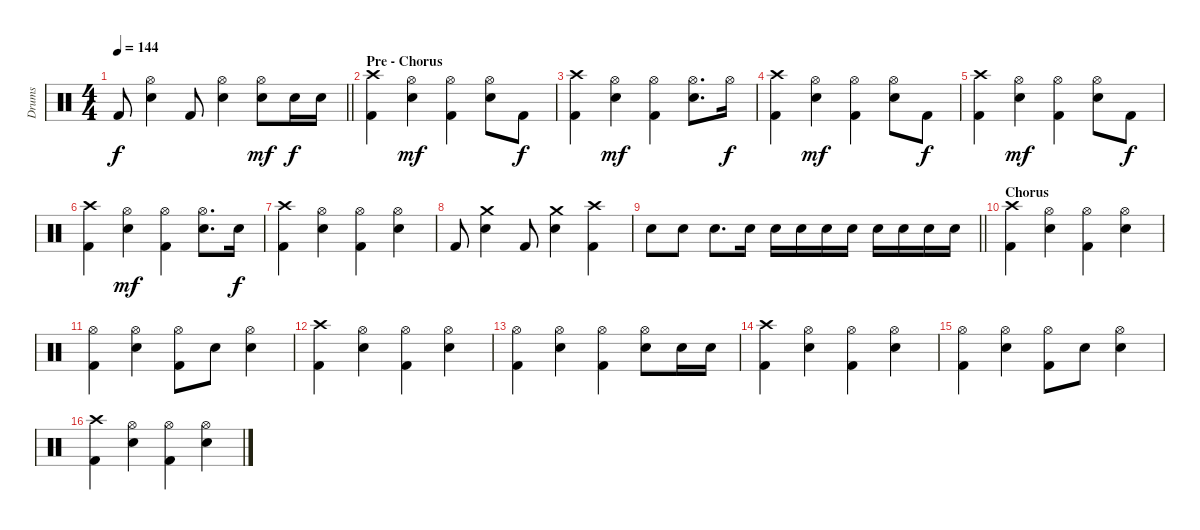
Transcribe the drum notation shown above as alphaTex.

\track ("Drums" "Drums") {instrument percussion}
\staff {score}
\articulation defaults
\ts (4 4)
\tempo 144
\clef neutral
\barLineRight lightlight
\ks c "Kick (hit) 2".8{dy f}
("Hi-Hat (open)" "Snare (hit) 2").4 "Kick (hit) 2".8 ("Hi-Hat (open)" "Snare (hit) 2").4 ("Hi-Hat (open)" "Snare (hit) 2").8{dy mf} "Snare (hit) 2".16{dy f} "Snare (hit) 2".16 |
\section ("" "Pre - Chorus")
("Kick (hit) 2" "Crash high (hit)").4 ("Hi-Hat (open)" "Snare (hit) 2").4{dy mf} ("Kick (hit) 2" "Hi-Hat (open)").4 ("Hi-Hat (open)" "Snare (hit) 2").8 "Kick (hit) 2".8{dy f} |
("Kick (hit) 2" "Crash high (hit)").4 ("Hi-Hat (open)" "Snare (hit) 2").4{dy mf} ("Kick (hit) 2" "Hi-Hat (open)").4 ("Hi-Hat (open)" "Snare (hit) 2").8{d} "Hi-Hat (open)".16{dy f} |
("Kick (hit) 2" "Crash high (hit)").4 ("Hi-Hat (open)" "Snare (hit) 2").4{dy mf} ("Kick (hit) 2" "Hi-Hat (open)").4 ("Hi-Hat (open)" "Snare (hit) 2").8 "Kick (hit) 2".8{dy f} |
("Kick (hit) 2" "Crash high (hit)").4 ("Hi-Hat (open)" "Snare (hit) 2").4{dy mf} ("Kick (hit) 2" "Hi-Hat (open)").4 ("Hi-Hat (open)" "Snare (hit) 2").8 "Kick (hit) 2".8{dy f} |
("Kick (hit) 2" "Crash high (hit)").4 ("Hi-Hat (open)" "Snare (hit) 2").4{dy mf} ("Kick (hit) 2" "Hi-Hat (open)").4 ("Hi-Hat (open)" "Snare (hit) 2").8{d} "Snare (hit) 2".16{dy f} |
("Kick (hit) 2" "Crash high (hit)").4 ("Hi-Hat (open)" "Snare (hit) 2").4 ("Kick (hit) 2" "Hi-Hat (open)").4 ("Hi-Hat (open)" "Snare (hit) 2").4 |
"Kick (hit) 2".8 ("Crash medium (hit)" "Snare (hit) 2").4 "Kick (hit) 2".8 ("Crash medium (hit)" "Snare (hit) 2").4 ("Kick (hit) 2" "Crash high (hit)").4 |
\barLineRight lightlight "Snare (hit) 2".8 "Snare (hit) 2".8 "Snare (hit) 2".8{d} "Snare (hit) 2".16 "Snare (hit) 2".16 "Snare (hit) 2".16 "Snare (hit) 2".16 "Snare (hit) 2".16 "Snare (hit) 2".16 "Snare (hit) 2".16 "Snare (hit) 2".16 "Snare (hit) 2".16
|
\section ("" "Chorus")
("Kick (hit) 2" "Crash high (hit)").4 ("Hi-Hat (open)" "Snare (hit) 2").4 ("Kick (hit) 2" "Hi-Hat (open)").4 ("Hi-Hat (open)" "Snare (hit) 2").4 |
("Kick (hit) 2" "Hi-Hat (open)").4 ("Hi-Hat (open)" "Snare (hit) 2").4 ("Kick (hit) 2" "Hi-Hat (open)").8 "Snare (hit) 2".8 ("Hi-Hat (open)" "Snare (hit) 2").4 |
("Kick (hit) 2" "Crash high (hit)").4 ("Hi-Hat (open)" "Snare (hit) 2").4 ("Kick (hit) 2" "Hi-Hat (open)").4 ("Hi-Hat (open)" "Snare (hit) 2").4 |
("Kick (hit) 2" "Hi-Hat (open)").4 ("Hi-Hat (open)" "Snare (hit) 2").4 ("Kick (hit) 2" "Hi-Hat (open)").4 ("Hi-Hat (open)" "Snare (hit) 2").8 "Snare (hit) 2".16 "Snare (hit) 2".16 |
("Kick (hit) 2" "Crash high (hit)").4 ("Hi-Hat (open)" "Snare (hit) 2").4 ("Kick (hit) 2" "Hi-Hat (open)").4 ("Hi-Hat (open)" "Snare (hit) 2").4 |
("Kick (hit) 2" "Hi-Hat (open)").4 ("Hi-Hat (open)" "Snare (hit) 2").4 ("Kick (hit) 2" "Hi-Hat (open)").8 "Snare (hit) 2".8 ("Hi-Hat (open)" "Snare (hit) 2").4 |
("Kick (hit) 2" "Crash high (hit)").4 ("Hi-Hat (open)" "Snare (hit) 2").4 ("Kick (hit) 2" "Hi-Hat (open)").4 ("Hi-Hat (open)" "Snare (hit) 2").4
